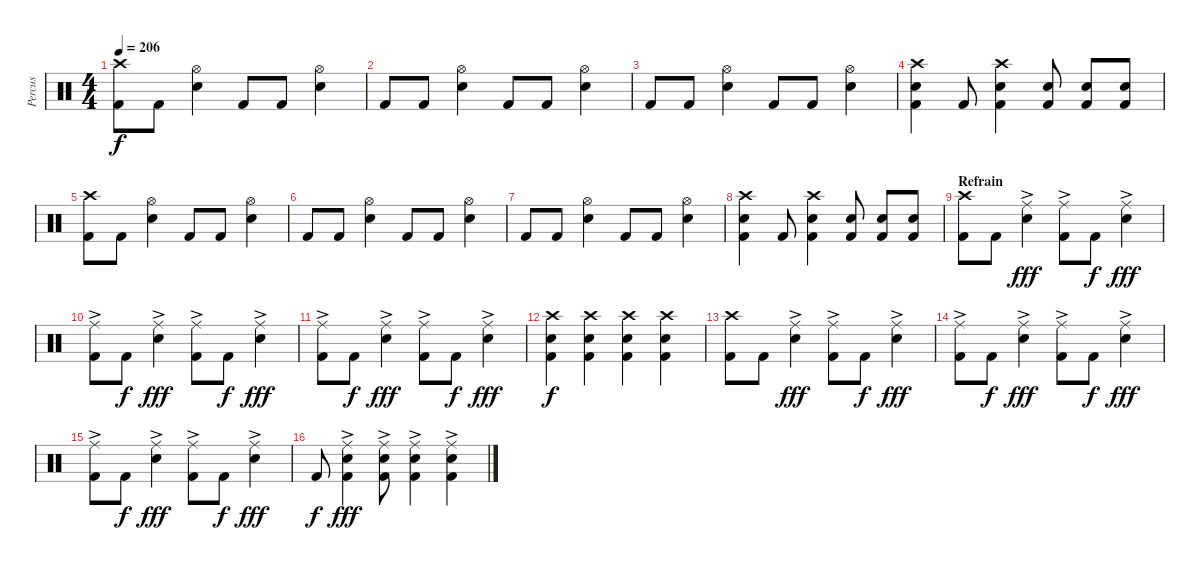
\track ("Percus" "Percus") {instrument percussion}
\staff {score}
\articulation defaults
\ts (4 4)
\tempo 206
\clef neutral
\ks c
("Crash high (hit)" "Kick (hit) 2").8{dy f} "Kick (hit) 2".8 ("Hi-Hat (open)" "Snare (hit) 2").4 "Kick (hit) 2".8 "Kick (hit) 2".8 ("Hi-Hat (open)" "Snare (hit) 2").4 |
"Kick (hit) 2".8 "Kick (hit) 2".8 ("Hi-Hat (open)" "Snare (hit) 2").4 "Kick (hit) 2".8 "Kick (hit) 2".8 ("Hi-Hat (open)" "Snare (hit) 2").4 |
"Kick (hit) 2".8 "Kick (hit) 2".8 ("Hi-Hat (open)" "Snare (hit) 2").4 "Kick (hit) 2".8 "Kick (hit) 2".8 ("Hi-Hat (open)" "Snare (hit) 2").4 |
("Crash high (hit)" "Snare (hit) 2" "Kick (hit) 2").4 "Kick (hit) 2".8 ("Crash high (hit)" "Snare (hit) 2" "Kick (hit) 2").4 ("Snare (hit) 2" "Kick (hit) 2").8 ("Snare (hit) 2" "Kick (hit) 2").8 ("Snare (hit) 2" "Kick (hit) 2").8 |
("Crash high (hit)" "Kick (hit) 2").8 "Kick (hit) 2".8 ("Hi-Hat (open)" "Snare (hit) 2").4 "Kick (hit) 2".8 "Kick (hit) 2".8 ("Hi-Hat (open)" "Snare (hit) 2").4 |
"Kick (hit) 2".8 "Kick (hit) 2".8 ("Hi-Hat (open)" "Snare (hit) 2").4 "Kick (hit) 2".8 "Kick (hit) 2".8 ("Hi-Hat (open)" "Snare (hit) 2").4 |
"Kick (hit) 2".8 "Kick (hit) 2".8 ("Hi-Hat (open)" "Snare (hit) 2").4 "Kick (hit) 2".8 "Kick (hit) 2".8 ("Hi-Hat (open)" "Snare (hit) 2").4 |
("Crash high (hit)" "Snare (hit) 2" "Kick (hit) 2").4 "Kick (hit) 2".8 ("Crash high (hit)" "Snare (hit) 2" "Kick (hit) 2").4 ("Snare (hit) 2" "Kick (hit) 2").8 ("Snare (hit) 2" "Kick (hit) 2").8 ("Snare (hit) 2" "Kick (hit) 2").8 |
\section ("" "Refrain")
("Crash high (hit)" "Kick (hit) 2").8 "Kick (hit) 2".8 ("Ride (middle)"{ac} "Snare (hit) 2").4{dy fff} ("Ride (middle)"{ac} "Kick (hit) 2").8 "Kick (hit) 2".8{dy f} ("Ride (middle)"{ac} "Snare (hit) 2").4{dy fff} |
("Ride (middle)"{ac} "Kick (hit) 2").8 "Kick (hit) 2".8{dy f} ("Ride (middle)"{ac} "Snare (hit) 2").4{dy fff} ("Ride (middle)"{ac} "Kick (hit) 2").8 "Kick (hit) 2".8{dy f} ("Ride (middle)"{ac} "Snare (hit) 2").4{dy fff} |
("Ride (middle)"{ac} "Kick (hit) 2").8 "Kick (hit) 2".8{dy f} ("Ride (middle)"{ac} "Snare (hit) 2").4{dy fff} ("Ride (middle)"{ac} "Kick (hit) 2").8 "Kick (hit) 2".8{dy f} ("Ride (middle)"{ac} "Snare (hit) 2").4{dy fff} |
("Crash high (hit)" "Snare (hit) 2" "Kick (hit) 2").4{dy f} ("Crash high (hit)" "Snare (hit) 2" "Kick (hit) 2").4 ("Crash high (hit)" "Snare (hit) 2" "Kick (hit) 2").4 ("Crash high (hit)" "Snare (hit) 2" "Kick (hit) 2").4 |
("Crash high (hit)" "Kick (hit) 2").8 "Kick (hit) 2".8 ("Ride (middle)"{ac} "Snare (hit) 2").4{dy fff} ("Ride (middle)"{ac} "Kick (hit) 2").8 "Kick (hit) 2".8{dy f} ("Ride (middle)"{ac} "Snare (hit) 2").4{dy fff} |
("Ride (middle)"{ac} "Kick (hit) 2").8 "Kick (hit) 2".8{dy f} ("Ride (middle)"{ac} "Snare (hit) 2").4{dy fff} ("Ride (middle)"{ac} "Kick (hit) 2").8 "Kick (hit) 2".8{dy f} ("Ride (middle)"{ac} "Snare (hit) 2").4{dy fff} |
("Ride (middle)"{ac} "Kick (hit) 2").8 "Kick (hit) 2".8{dy f} ("Ride (middle)"{ac} "Snare (hit) 2").4{dy fff} ("Ride (middle)"{ac} "Kick (hit) 2").8 "Kick (hit) 2".8{dy f} ("Ride (middle)"{ac} "Snare (hit) 2").4{dy fff} |
"Kick (hit) 2".8{dy f} ("Ride (middle)"{ac} "Snare (hit) 2" "Kick (hit) 2").4{dy fff} ("Ride (middle)"{ac} "Snare (hit) 2" "Kick (hit) 2").8 ("Ride (middle)"{ac} "Snare (hit) 2" "Kick (hit) 2").4 ("Ride (middle)"{ac} "Snare (hit) 2" "Kick (hit) 2").4
